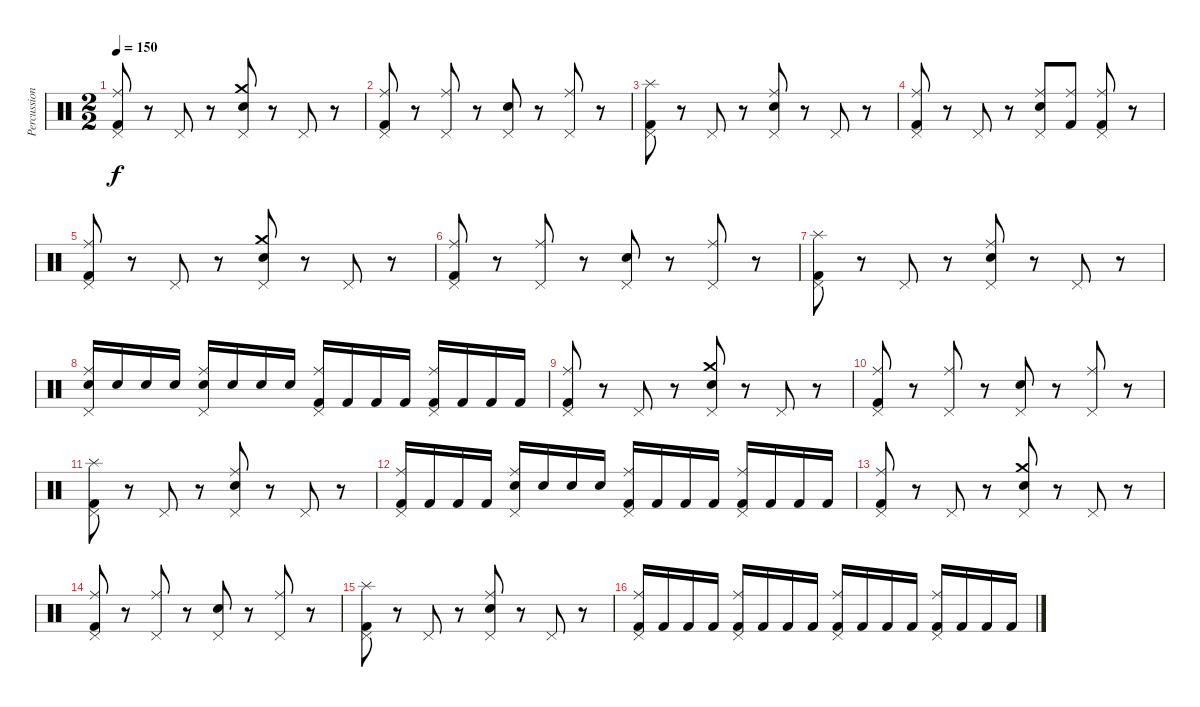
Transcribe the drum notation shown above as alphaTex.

\track ("Percussion" "Percussion") {instrument percussion}
\staff {score}
\articulation defaults
\ts (2 2)
\tempo 150
\clef neutral
\ks c
("Pedal Hi-Hat (hit)" "Ride (middle)" "Kick (hit) 2").8{dy f} r.8 "Pedal Hi-Hat (hit)".8 r.8 ("Pedal Hi-Hat (hit)" "Crash medium (hit)" "Snare (hit) 2").8 r.8 "Pedal Hi-Hat (hit)".8 r.8 |
("Pedal Hi-Hat (hit)" "Ride (middle)" "Kick (hit) 2").8 r.8 ("Pedal Hi-Hat (hit)" "Ride (middle)").8 r.8 ("Pedal Hi-Hat (hit)" "Snare (hit) 2").8 r.8 ("Pedal Hi-Hat (hit)" "Ride (middle)").8 r.8 |
("Pedal Hi-Hat (hit)" "Splash (hit)" "Kick (hit) 2").8 r.8 "Pedal Hi-Hat (hit)".8 r.8 ("Pedal Hi-Hat (hit)" "Ride (middle)" "Snare (hit) 2").8 r.8 "Pedal Hi-Hat (hit)".8 r.8 |
("Pedal Hi-Hat (hit)" "Ride (middle)" "Kick (hit) 2").8 r.8 "Pedal Hi-Hat (hit)".8 r.8 ("Pedal Hi-Hat (hit)" "Ride (middle)" "Snare (hit) 2").8 ("Ride (middle)" "Kick (hit) 2").8 ("Pedal Hi-Hat (hit)" "Ride (middle)" "Kick (hit) 2").8 r.8 |
("Pedal Hi-Hat (hit)" "Ride (middle)" "Kick (hit) 2").8 r.8 "Pedal Hi-Hat (hit)".8 r.8 ("Pedal Hi-Hat (hit)" "Crash medium (hit)" "Snare (hit) 2").8 r.8 "Pedal Hi-Hat (hit)".8 r.8 |
("Pedal Hi-Hat (hit)" "Ride (middle)" "Kick (hit) 2").8 r.8 ("Pedal Hi-Hat (hit)" "Ride (middle)").8 r.8 ("Pedal Hi-Hat (hit)" "Snare (hit) 2").8 r.8 ("Pedal Hi-Hat (hit)" "Ride (middle)").8 r.8 |
("Pedal Hi-Hat (hit)" "Splash (hit)" "Kick (hit) 2").8 r.8 "Pedal Hi-Hat (hit)".8 r.8 ("Pedal Hi-Hat (hit)" "Ride (middle)" "Snare (hit) 2").8 r.8 "Pedal Hi-Hat (hit)".8 r.8 |
("Pedal Hi-Hat (hit)" "Ride (middle)" "Snare (hit) 2").16 "Snare (hit) 2".16 "Snare (hit) 2".16 "Snare (hit) 2".16 ("Pedal Hi-Hat (hit)" "Ride (middle)" "Snare (hit) 2").16 "Snare (hit) 2".16 "Snare (hit) 2".16 "Snare (hit) 2".16 ("Pedal Hi-Hat (hit)" "Ride (middle)" "Kick (hit) 2").16 "Kick (hit) 2".16 "Kick (hit) 2".16 "Kick (hit) 2".16 ("Pedal Hi-Hat (hit)" "Ride (middle)" "Kick (hit) 2").16 "Kick (hit) 2".16 "Kick (hit) 2".16 "Kick (hit) 2".16 |
("Pedal Hi-Hat (hit)" "Ride (middle)" "Kick (hit) 2").8 r.8 "Pedal Hi-Hat (hit)".8 r.8 ("Pedal Hi-Hat (hit)" "Crash medium (hit)" "Snare (hit) 2").8 r.8 "Pedal Hi-Hat (hit)".8 r.8 |
("Pedal Hi-Hat (hit)" "Ride (middle)" "Kick (hit) 2").8 r.8 ("Pedal Hi-Hat (hit)" "Ride (middle)").8 r.8 ("Pedal Hi-Hat (hit)" "Snare (hit) 2").8 r.8 ("Pedal Hi-Hat (hit)" "Ride (middle)").8 r.8 |
("Pedal Hi-Hat (hit)" "Splash (hit)" "Kick (hit) 2").8 r.8 "Pedal Hi-Hat (hit)".8 r.8 ("Pedal Hi-Hat (hit)" "Ride (middle)" "Snare (hit) 2").8 r.8 "Pedal Hi-Hat (hit)".8 r.8 |
("Pedal Hi-Hat (hit)" "Ride (middle)" "Kick (hit) 2").16 "Kick (hit) 2".16 "Kick (hit) 2".16 "Kick (hit) 2".16 ("Pedal Hi-Hat (hit)" "Ride (middle)" "Snare (hit) 2").16 "Snare (hit) 2".16 "Snare (hit) 2".16 "Snare (hit) 2".16 ("Pedal Hi-Hat (hit)" "Ride (middle)" "Kick (hit) 2").16 "Kick (hit) 2".16 "Kick (hit) 2".16 "Kick (hit) 2".16 ("Pedal Hi-Hat (hit)" "Ride (middle)" "Kick (hit) 2").16 "Kick (hit) 2".16 "Kick (hit) 2".16 "Kick (hit) 2".16 |
("Pedal Hi-Hat (hit)" "Ride (middle)" "Kick (hit) 2").8 r.8 "Pedal Hi-Hat (hit)".8 r.8 ("Pedal Hi-Hat (hit)" "Crash medium (hit)" "Snare (hit) 2").8 r.8 "Pedal Hi-Hat (hit)".8 r.8 |
("Pedal Hi-Hat (hit)" "Ride (middle)" "Kick (hit) 2").8 r.8 ("Pedal Hi-Hat (hit)" "Ride (middle)").8 r.8 ("Pedal Hi-Hat (hit)" "Snare (hit) 2").8 r.8 ("Pedal Hi-Hat (hit)" "Ride (middle)").8 r.8 |
("Pedal Hi-Hat (hit)" "Splash (hit)" "Kick (hit) 2").8 r.8 "Pedal Hi-Hat (hit)".8 r.8 ("Pedal Hi-Hat (hit)" "Ride (middle)" "Snare (hit) 2").8 r.8 "Pedal Hi-Hat (hit)".8 r.8 |
("Pedal Hi-Hat (hit)" "Ride (middle)" "Kick (hit) 2").16 "Kick (hit) 2".16 "Kick (hit) 2".16 "Kick (hit) 2".16 ("Pedal Hi-Hat (hit)" "Ride (middle)" "Kick (hit) 2").16 "Kick (hit) 2".16 "Kick (hit) 2".16 "Kick (hit) 2".16 ("Pedal Hi-Hat (hit)" "Ride (middle)" "Kick (hit) 2").16 "Kick (hit) 2".16 "Kick (hit) 2".16 "Kick (hit) 2".16 ("Pedal Hi-Hat (hit)" "Ride (middle)" "Kick (hit) 2").16 "Kick (hit) 2".16 "Kick (hit) 2".16 "Kick (hit) 2".16
